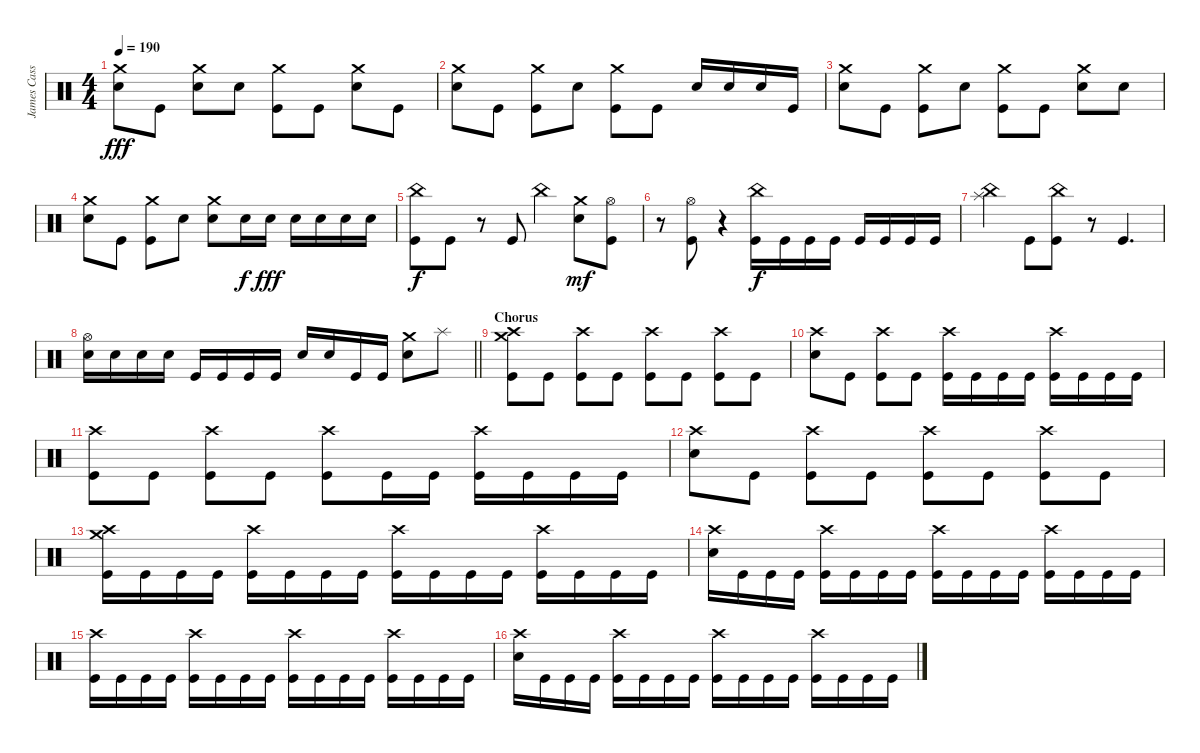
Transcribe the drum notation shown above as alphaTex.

\track ("James Cassells" "James Cass") {instrument percussion}
\staff {score}
\articulation defaults
\ts (4 4)
\tempo 190
\clef neutral
\ks c
("Crash medium (hit)" "Snare (hit) 2").8{dy fff} "Kick (hit)".8 ("Crash medium (hit)" "Snare (hit) 2").8 "Snare (hit) 2".8 ("Crash medium (hit)" "Kick (hit)").8 "Kick (hit)".8 ("Crash medium (hit)" "Snare (hit) 2").8 "Kick (hit)".8 |
("Crash medium (hit)" "Snare (hit) 2").8 "Kick (hit)".8 ("Crash medium (hit)" "Kick (hit)").8 "Snare (hit) 2".8 ("Crash medium (hit)" "Kick (hit)").8 "Kick (hit)".8 "Snare (hit) 2".16 "Snare (hit) 2".16 "Snare (hit) 2".16 "Kick (hit)".16 |
("Crash medium (hit)" "Snare (hit) 2").8 "Kick (hit)".8 ("Crash medium (hit)" "Kick (hit)").8 "Snare (hit) 2".8 ("Crash medium (hit)" "Kick (hit)").8 "Kick (hit)".8 ("Crash medium (hit)" "Snare (hit) 2").8 "Snare (hit) 2".8 |
("Crash medium (hit)" "Snare (hit) 2").8 "Kick (hit)".8 ("Crash medium (hit)" "Kick (hit)").8 "Snare (hit) 2".8 ("Crash medium (hit)" "Snare (hit) 2").8 "Snare (hit) 2".16{dy f} "Snare (hit) 2".16{dy fff} "Snare (hit) 2".16 "Snare (hit) 2".16 "Snare (hit) 2".16 "Snare (hit) 2".16 |
("China (hit)" "Kick (hit)").8{dy f} "Kick (hit)".8 r.8 "Kick (hit)".8 "China (hit)".4 ("Crash medium (hit)" "Snare (hit) 2").8{dy mf} ("Hi-Hat (open)" "Kick (hit)").8 |
r.8 ("Hi-Hat (open)" "Kick (hit)").8 r.4 ("China (hit)" "Kick (hit)").16{dy f} "Kick (hit)".16 "Kick (hit)".16 "Kick (hit)".16 "Kick (hit)".16 "Kick (hit)".16 "Kick (hit)".16 "Kick (hit)".16 |
("China (hit)" "Splash (hit)").4 "Kick (hit)".8 ("China (hit)" "Kick (hit)").8 r.8 "Kick (hit)".4{d} |
\barLineRight lightlight
("Hi-Hat (open)" "Snare (hit) 2").16 "Snare (hit) 2".16 "Snare (hit) 2".16 "Snare (hit) 2".16 "Kick (hit)".16 "Kick (hit)".16 "Kick (hit)".16 "Kick (hit)".16 "Snare (hit) 2".16 "Snare (hit) 2".16 "Kick (hit)".16 "Kick (hit)".16 ("Crash medium (hit)" "Snare (hit) 2").8 "Splash (hit)".8 |
\section ("" "Chorus")
("Crash high (hit)" "Crash medium (hit)" "Kick (hit)").8 "Kick (hit)".8 ("Crash high (hit)" "Kick (hit)").8 "Kick (hit)".8 ("Crash high (hit)" "Kick (hit)").8 "Kick (hit)".8 ("Crash high (hit)" "Kick (hit)").8 "Kick (hit)".8 |
("Crash high (hit)" "Snare (hit) 2").8 "Kick (hit)".8 ("Crash high (hit)" "Kick (hit)").8 "Kick (hit)".8 ("Crash high (hit)" "Kick (hit)").16 "Kick (hit)".16 "Kick (hit)".16 "Kick (hit)".16 ("Crash high (hit)" "Kick (hit)").16 "Kick (hit)".16 "Kick (hit)".16 "Kick (hit)".16 |
("Crash high (hit)" "Kick (hit)").8 "Kick (hit)".8 ("Crash high (hit)" "Kick (hit)").8 "Kick (hit)".8 ("Crash high (hit)" "Kick (hit)").8 "Kick (hit)".16 "Kick (hit)".16 ("Crash high (hit)" "Kick (hit)").16 "Kick (hit)".16 "Kick (hit)".16 "Kick (hit)".16 |
("Crash high (hit)" "Snare (hit) 2").8 "Kick (hit)".8 ("Crash high (hit)" "Kick (hit)").8 "Kick (hit)".8 ("Crash high (hit)" "Kick (hit)").8 "Kick (hit)".8 ("Crash high (hit)" "Kick (hit)").8 "Kick (hit)".8 |
("Crash high (hit)" "Crash medium (hit)" "Kick (hit)").16 "Kick (hit)".16 "Kick (hit)".16 "Kick (hit)".16 ("Crash high (hit)" "Kick (hit)").16 "Kick (hit)".16 "Kick (hit)".16 "Kick (hit)".16 ("Crash high (hit)" "Kick (hit)").16 "Kick (hit)".16 "Kick (hit)".16 "Kick (hit)".16 ("Crash high (hit)" "Kick (hit)").16 "Kick (hit)".16 "Kick (hit)".16 "Kick (hit)".16 |
("Crash high (hit)" "Snare (hit) 2").16 "Kick (hit)".16 "Kick (hit)".16 "Kick (hit)".16 ("Crash high (hit)" "Kick (hit)").16 "Kick (hit)".16 "Kick (hit)".16 "Kick (hit)".16 ("Crash high (hit)" "Kick (hit)").16 "Kick (hit)".16 "Kick (hit)".16 "Kick (hit)".16 ("Crash high (hit)" "Kick (hit)").16 "Kick (hit)".16 "Kick (hit)".16 "Kick (hit)".16 |
("Crash high (hit)" "Kick (hit)").16 "Kick (hit)".16 "Kick (hit)".16 "Kick (hit)".16 ("Crash high (hit)" "Kick (hit)").16 "Kick (hit)".16 "Kick (hit)".16 "Kick (hit)".16 ("Crash high (hit)" "Kick (hit)").16 "Kick (hit)".16 "Kick (hit)".16 "Kick (hit)".16 ("Crash high (hit)" "Kick (hit)").16 "Kick (hit)".16 "Kick (hit)".16 "Kick (hit)".16 |
("Crash high (hit)" "Snare (hit) 2").16 "Kick (hit)".16 "Kick (hit)".16 "Kick (hit)".16 ("Crash high (hit)" "Kick (hit)").16 "Kick (hit)".16 "Kick (hit)".16 "Kick (hit)".16 ("Crash high (hit)" "Kick (hit)").16 "Kick (hit)".16 "Kick (hit)".16 "Kick (hit)".16 ("Crash high (hit)" "Kick (hit)").16 "Kick (hit)".16 "Kick (hit)".16 "Kick (hit)".16
